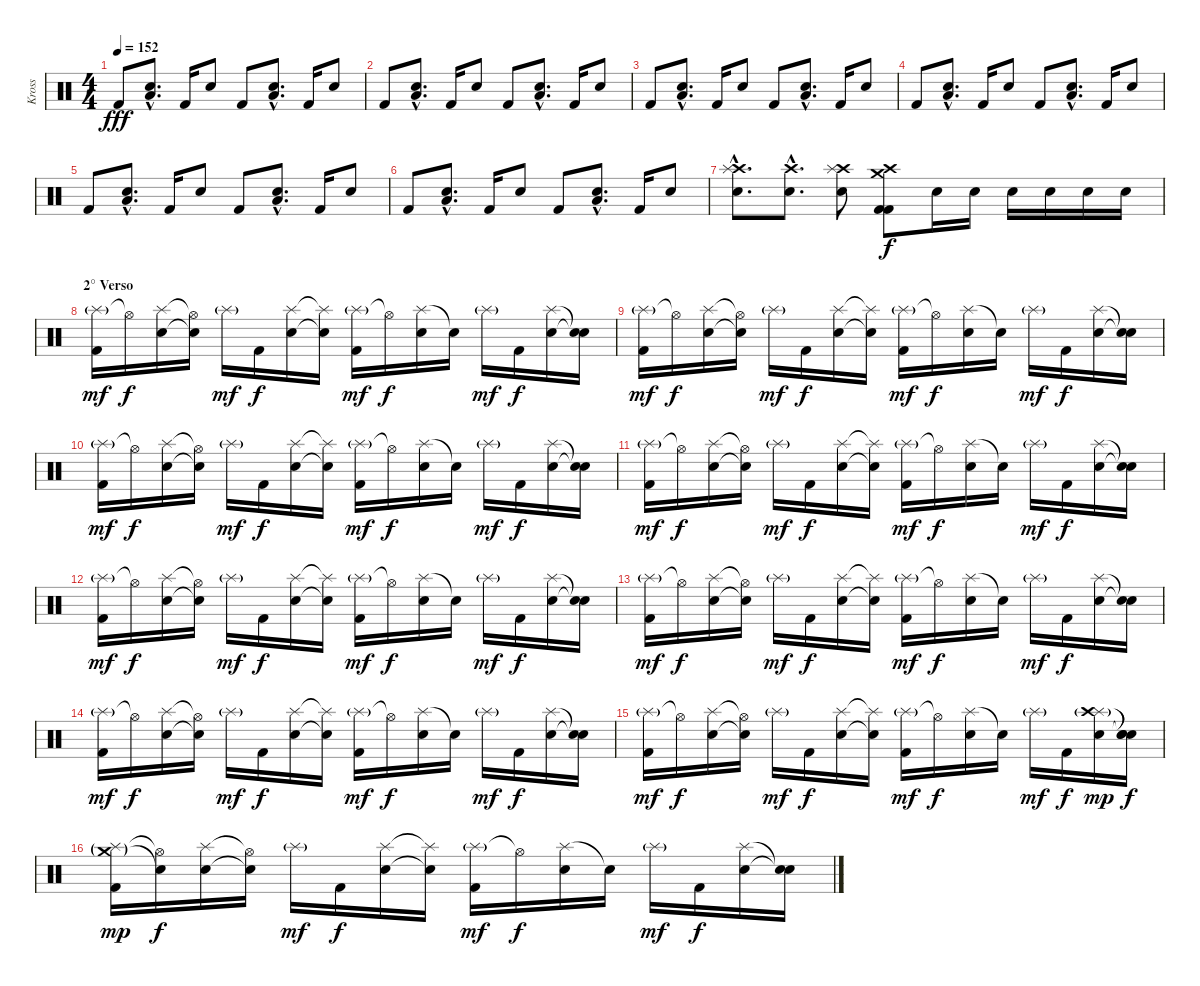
\track ("Kross" "Kross") {instrument percussion}
\staff {score}
\articulation defaults
\ts (4 4)
\tempo 152
\clef neutral
\ks c "Kick (hit) 2".8{dy fff}
("Electric Snare (hit)"{hac} "Low Floor Tom (hit)"{hac}).8{d} "Kick (hit) 2".16 "Electric Snare (hit)".8 "Kick (hit) 2".8 ("Electric Snare (hit)"{hac} "Low Floor Tom (hit)"{hac}).8{d} "Kick (hit) 2".16 "Electric Snare (hit)".8 |
"Kick (hit) 2".8 ("Electric Snare (hit)"{hac} "Low Floor Tom (hit)"{hac}).8{d} "Kick (hit) 2".16 "Electric Snare (hit)".8 "Kick (hit) 2".8 ("Electric Snare (hit)"{hac} "Low Floor Tom (hit)"{hac}).8{d} "Kick (hit) 2".16 "Electric Snare (hit)".8 |
"Kick (hit) 2".8 ("Electric Snare (hit)"{hac} "Low Floor Tom (hit)"{hac}).8{d} "Kick (hit) 2".16 "Electric Snare (hit)".8 "Kick (hit) 2".8 ("Electric Snare (hit)"{hac} "Low Floor Tom (hit)"{hac}).8{d} "Kick (hit) 2".16 "Electric Snare (hit)".8 |
"Kick (hit) 2".8 ("Electric Snare (hit)"{hac} "Low Floor Tom (hit)"{hac}).8{d} "Kick (hit) 2".16 "Electric Snare (hit)".8 "Kick (hit) 2".8 ("Electric Snare (hit)"{hac} "Low Floor Tom (hit)"{hac}).8{d} "Kick (hit) 2".16 "Electric Snare (hit)".8 |
"Kick (hit) 2".8 ("Electric Snare (hit)"{hac} "Low Floor Tom (hit)"{hac}).8{d} "Kick (hit) 2".16 "Electric Snare (hit)".8 "Kick (hit) 2".8 ("Electric Snare (hit)"{hac} "Low Floor Tom (hit)"{hac}).8{d} "Kick (hit) 2".16 "Electric Snare (hit)".8 |
"Kick (hit) 2".8 ("Electric Snare (hit)"{hac} "Low Floor Tom (hit)"{hac}).8{d} "Kick (hit) 2".16 "Electric Snare (hit)".8 "Kick (hit) 2".8 ("Electric Snare (hit)"{hac} "Low Floor Tom (hit)"{hac}).8{d} "Kick (hit) 2".16 "Electric Snare (hit)".8 |
("Crash high (hit)"{hac} "Splash (hit)"{hac} "Electric Snare (hit)"{hac}).8{d} ("Crash high (hit)"{hac} "Electric Snare (hit)"{hac}).8{d} ("Crash high (hit)" "Splash (hit)" "Electric Snare (hit)").8 ("Crash medium (hit)" "Crash high (hit)" "Kick (hit) 2" "Kick (hit) 2").8{dy f} "Electric Snare (hit)".16 "Electric Snare (hit)".16 "Electric Snare (hit)".16 "Electric Snare (hit)".16 "Electric Snare (hit)".16 "Electric Snare (hit)".16 |
\section ("" "2° Verso ")
("Splash (hit)"{g} "Kick (hit) 2").16{dy mf} "Hi-Hat (open)"{t}.16{dy f} ("Splash (hit)" "Electric Snare (hit)").16 ("Hi-Hat (open)"{t} "Electric Snare (hit)"{t}).16 "Splash (hit)"{g}.16{dy mf} "Kick (hit) 2".16{dy f} ("Splash (hit)" "Electric Snare (hit)").16 ("Splash (hit)"{t} "Electric Snare (hit)"{t}).16 ("Splash (hit)"{g} "Kick (hit) 2").16{dy mf} "Hi-Hat (open)"{t}.16{dy f} ("Splash (hit)" "Electric Snare (hit)").16 "Snare (hit)"{t}.16 "Splash (hit)"{g}.16{dy mf} "Kick (hit) 2".16{dy f} ("Splash (hit)" "Electric Snare (hit)").16 ("Snare (hit)"{t} "Snare (hit)"{t}).16 |
("Splash (hit)"{g} "Kick (hit) 2").16{dy mf} "Hi-Hat (open)"{t}.16{dy f} ("Splash (hit)" "Electric Snare (hit)").16 ("Hi-Hat (open)"{t} "Electric Snare (hit)"{t}).16 "Splash (hit)"{g}.16{dy mf} "Kick (hit) 2".16{dy f} ("Splash (hit)" "Electric Snare (hit)").16 ("Splash (hit)"{t} "Electric Snare (hit)"{t}).16 ("Splash (hit)"{g} "Kick (hit) 2").16{dy mf} "Hi-Hat (open)"{t}.16{dy f} ("Splash (hit)" "Electric Snare (hit)").16 "Snare (hit)"{t}.16 "Splash (hit)"{g}.16{dy mf} "Kick (hit) 2".16{dy f} ("Splash (hit)" "Electric Snare (hit)").16 ("Snare (hit)"{t} "Snare (hit)"{t}).16 |
("Splash (hit)"{g} "Kick (hit) 2").16{dy mf} "Hi-Hat (open)"{t}.16{dy f} ("Splash (hit)" "Electric Snare (hit)").16 ("Hi-Hat (open)"{t} "Electric Snare (hit)"{t}).16 "Splash (hit)"{g}.16{dy mf} "Kick (hit) 2".16{dy f} ("Splash (hit)" "Electric Snare (hit)").16 ("Splash (hit)"{t} "Electric Snare (hit)"{t}).16 ("Splash (hit)"{g} "Kick (hit) 2").16{dy mf} "Hi-Hat (open)"{t}.16{dy f} ("Splash (hit)" "Electric Snare (hit)").16 "Snare (hit)"{t}.16 "Splash (hit)"{g}.16{dy mf} "Kick (hit) 2".16{dy f} ("Splash (hit)" "Electric Snare (hit)").16 ("Snare (hit)"{t} "Snare (hit)"{t}).16 |
("Splash (hit)"{g} "Kick (hit) 2").16{dy mf} "Hi-Hat (open)"{t}.16{dy f} ("Splash (hit)" "Electric Snare (hit)").16 ("Hi-Hat (open)"{t} "Electric Snare (hit)"{t}).16 "Splash (hit)"{g}.16{dy mf} "Kick (hit) 2".16{dy f} ("Splash (hit)" "Electric Snare (hit)").16 ("Splash (hit)"{t} "Electric Snare (hit)"{t}).16 ("Splash (hit)"{g} "Kick (hit) 2").16{dy mf} "Hi-Hat (open)"{t}.16{dy f} ("Splash (hit)" "Electric Snare (hit)").16 "Snare (hit)"{t}.16 "Splash (hit)"{g}.16{dy mf} "Kick (hit) 2".16{dy f} ("Splash (hit)" "Electric Snare (hit)").16 ("Snare (hit)"{t} "Snare (hit)"{t}).16 |
("Splash (hit)"{g} "Kick (hit) 2").16{dy mf} "Hi-Hat (open)"{t}.16{dy f} ("Splash (hit)" "Electric Snare (hit)").16 ("Hi-Hat (open)"{t} "Electric Snare (hit)"{t}).16 "Splash (hit)"{g}.16{dy mf} "Kick (hit) 2".16{dy f} ("Splash (hit)" "Electric Snare (hit)").16 ("Splash (hit)"{t} "Electric Snare (hit)"{t}).16 ("Splash (hit)"{g} "Kick (hit) 2").16{dy mf} "Hi-Hat (open)"{t}.16{dy f} ("Splash (hit)" "Electric Snare (hit)").16 "Snare (hit)"{t}.16 "Splash (hit)"{g}.16{dy mf} "Kick (hit) 2".16{dy f} ("Splash (hit)" "Electric Snare (hit)").16 ("Snare (hit)"{t} "Snare (hit)"{t}).16 |
("Splash (hit)"{g} "Kick (hit) 2").16{dy mf} "Hi-Hat (open)"{t}.16{dy f} ("Splash (hit)" "Electric Snare (hit)").16 ("Hi-Hat (open)"{t} "Electric Snare (hit)"{t}).16 "Splash (hit)"{g}.16{dy mf} "Kick (hit) 2".16{dy f} ("Splash (hit)" "Electric Snare (hit)").16 ("Splash (hit)"{t} "Electric Snare (hit)"{t}).16 ("Splash (hit)"{g} "Kick (hit) 2").16{dy mf} "Hi-Hat (open)"{t}.16{dy f} ("Splash (hit)" "Electric Snare (hit)").16 "Snare (hit)"{t}.16 "Splash (hit)"{g}.16{dy mf} "Kick (hit) 2".16{dy f} ("Splash (hit)" "Electric Snare (hit)").16 ("Snare (hit)"{t} "Snare (hit)"{t}).16 |
("Splash (hit)"{g} "Kick (hit) 2").16{dy mf} "Hi-Hat (open)"{t}.16{dy f} ("Splash (hit)" "Electric Snare (hit)").16 ("Hi-Hat (open)"{t} "Electric Snare (hit)"{t}).16 "Splash (hit)"{g}.16{dy mf} "Kick (hit) 2".16{dy f} ("Splash (hit)" "Electric Snare (hit)").16 ("Splash (hit)"{t} "Electric Snare (hit)"{t}).16 ("Splash (hit)"{g} "Kick (hit) 2").16{dy mf} "Hi-Hat (open)"{t}.16{dy f} ("Splash (hit)" "Electric Snare (hit)").16 "Snare (hit)"{t}.16 "Splash (hit)"{g}.16{dy mf} "Kick (hit) 2".16{dy f} ("Splash (hit)" "Electric Snare (hit)").16 ("Snare (hit)"{t} "Snare (hit)"{t}).16 |
("Splash (hit)"{g} "Kick (hit) 2").16{dy mf} "Hi-Hat (open)"{t}.16{dy f} ("Splash (hit)" "Electric Snare (hit)").16 ("Hi-Hat (open)"{t} "Electric Snare (hit)"{t}).16 "Splash (hit)"{g}.16{dy mf} "Kick (hit) 2".16{dy f} ("Splash (hit)" "Electric Snare (hit)").16 ("Splash (hit)"{t} "Electric Snare (hit)"{t}).16 ("Splash (hit)"{g} "Kick (hit) 2").16{dy mf} "Hi-Hat (open)"{t}.16{dy f} ("Splash (hit)" "Electric Snare (hit)").16 "Snare (hit)"{t}.16 "Splash (hit)"{g}.16{dy mf} "Kick (hit) 2".16{dy f} ("Splash (hit)" "Crash high (hit)"{g} "Electric Snare (hit)").16{dy mp} ("Snare (hit)"{t} "Snare (hit)"{t} "Snare (hit)"{t}).16{dy f} |
("Splash (hit)"{g} "Crash medium (hit)"{g} "Kick (hit) 2").16{dy mp} ("Hi-Hat (open)"{t} "Snare (hit)"{t}).16{dy f} ("Splash (hit)" "Electric Snare (hit)").16 ("Hi-Hat (open)"{t} "Electric Snare (hit)"{t}).16 "Splash (hit)"{g}.16{dy mf} "Kick (hit) 2".16{dy f} ("Splash (hit)" "Electric Snare (hit)").16 ("Splash (hit)"{t} "Electric Snare (hit)"{t}).16 ("Splash (hit)"{g} "Kick (hit) 2").16{dy mf} "Hi-Hat (open)"{t}.16{dy f} ("Splash (hit)" "Electric Snare (hit)").16 "Snare (hit)"{t}.16 "Splash (hit)"{g}.16{dy mf} "Kick (hit) 2".16{dy f} ("Splash (hit)" "Electric Snare (hit)").16 ("Snare (hit)"{t} "Snare (hit)"{t}).16
